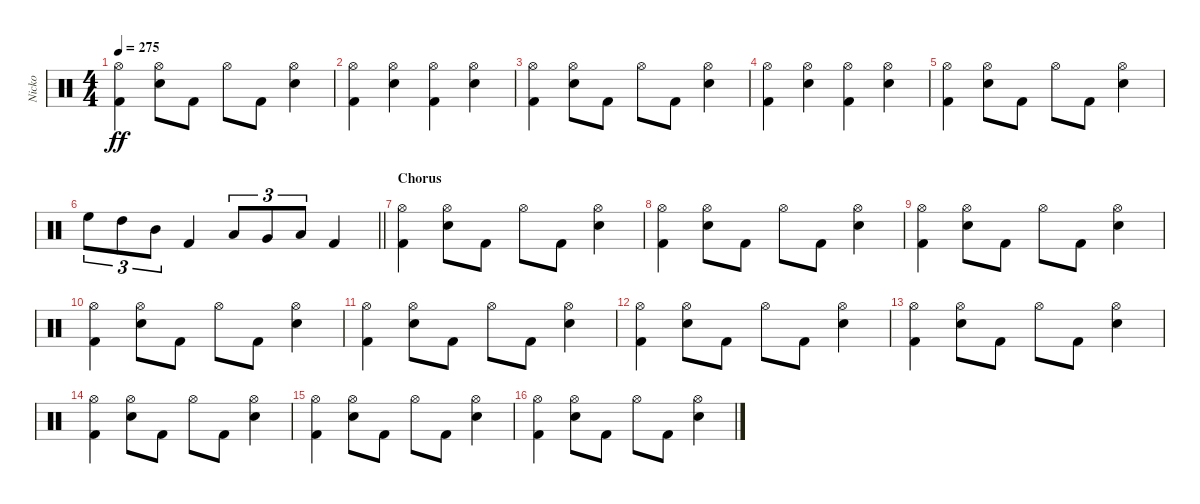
\track ("Nicko" "Nicko") {instrument percussion}
\staff {score}
\articulation defaults
\ts (4 4)
\tempo 275
\clef neutral
\ks c
("Kick (hit) 2" "Hi-Hat (open)").4{dy ff} ("Snare (hit) 2" "Hi-Hat (open)").8 "Kick (hit) 2".8 "Hi-Hat (open)".8 "Kick (hit) 2".8 ("Snare (hit) 2" "Hi-Hat (open)").4 |
("Kick (hit) 2" "Hi-Hat (open)").4 ("Snare (hit) 2" "Hi-Hat (open)").4 ("Kick (hit) 2" "Hi-Hat (open)").4 ("Snare (hit) 2" "Hi-Hat (open)").4 |
("Kick (hit) 2" "Hi-Hat (open)").4 ("Snare (hit) 2" "Hi-Hat (open)").8 "Kick (hit) 2".8 "Hi-Hat (open)".8 "Kick (hit) 2".8 ("Snare (hit) 2" "Hi-Hat (open)").4 |
("Kick (hit) 2" "Hi-Hat (open)").4 ("Snare (hit) 2" "Hi-Hat (open)").4 ("Kick (hit) 2" "Hi-Hat (open)").4 ("Snare (hit) 2" "Hi-Hat (open)").4 |
("Kick (hit) 2" "Hi-Hat (open)").4 ("Snare (hit) 2" "Hi-Hat (open)").8 "Kick (hit) 2".8 "Hi-Hat (open)".8 "Kick (hit) 2".8 ("Snare (hit) 2" "Hi-Hat (open)").4 |
\barLineRight lightlight "High Floor Tom (hit)".8{tu (3 2)} "High Tom (hit)".8{tu (3 2)} "Mid Tom (hit)".8{tu (3 2)} "Kick (hit) 2".4 "Low Tom (hit)".8{tu (3 2)} "Very Low Tom (hit)".8{tu (3 2)} "Low Floor Tom (hit)".8{tu (3 2)} "Kick (hit) 2".4
|
\section ("" "Chorus")
("Kick (hit) 2" "Hi-Hat (open)").4 ("Snare (hit) 2" "Hi-Hat (open)").8 "Kick (hit) 2".8 "Hi-Hat (open)".8 "Kick (hit) 2".8 ("Snare (hit) 2" "Hi-Hat (open)").4 |
("Kick (hit) 2" "Hi-Hat (open)").4 ("Snare (hit) 2" "Hi-Hat (open)").8 "Kick (hit) 2".8 "Hi-Hat (open)".8 "Kick (hit) 2".8 ("Snare (hit) 2" "Hi-Hat (open)").4 |
("Kick (hit) 2" "Hi-Hat (open)").4 ("Snare (hit) 2" "Hi-Hat (open)").8 "Kick (hit) 2".8 "Hi-Hat (open)".8 "Kick (hit) 2".8 ("Snare (hit) 2" "Hi-Hat (open)").4 |
("Kick (hit) 2" "Hi-Hat (open)").4 ("Snare (hit) 2" "Hi-Hat (open)").8 "Kick (hit) 2".8 "Hi-Hat (open)".8 "Kick (hit) 2".8 ("Snare (hit) 2" "Hi-Hat (open)").4 |
("Kick (hit) 2" "Hi-Hat (open)").4 ("Snare (hit) 2" "Hi-Hat (open)").8 "Kick (hit) 2".8 "Hi-Hat (open)".8 "Kick (hit) 2".8 ("Snare (hit) 2" "Hi-Hat (open)").4 |
("Kick (hit) 2" "Hi-Hat (open)").4 ("Snare (hit) 2" "Hi-Hat (open)").8 "Kick (hit) 2".8 "Hi-Hat (open)".8 "Kick (hit) 2".8 ("Snare (hit) 2" "Hi-Hat (open)").4 |
("Kick (hit) 2" "Hi-Hat (open)").4 ("Snare (hit) 2" "Hi-Hat (open)").8 "Kick (hit) 2".8 "Hi-Hat (open)".8 "Kick (hit) 2".8 ("Snare (hit) 2" "Hi-Hat (open)").4 |
("Kick (hit) 2" "Hi-Hat (open)").4 ("Snare (hit) 2" "Hi-Hat (open)").8 "Kick (hit) 2".8 "Hi-Hat (open)".8 "Kick (hit) 2".8 ("Snare (hit) 2" "Hi-Hat (open)").4 |
("Kick (hit) 2" "Hi-Hat (open)").4 ("Snare (hit) 2" "Hi-Hat (open)").8 "Kick (hit) 2".8 "Hi-Hat (open)".8 "Kick (hit) 2".8 ("Snare (hit) 2" "Hi-Hat (open)").4 |
("Kick (hit) 2" "Hi-Hat (open)").4 ("Snare (hit) 2" "Hi-Hat (open)").8 "Kick (hit) 2".8 "Hi-Hat (open)".8 "Kick (hit) 2".8 ("Snare (hit) 2" "Hi-Hat (open)").4
